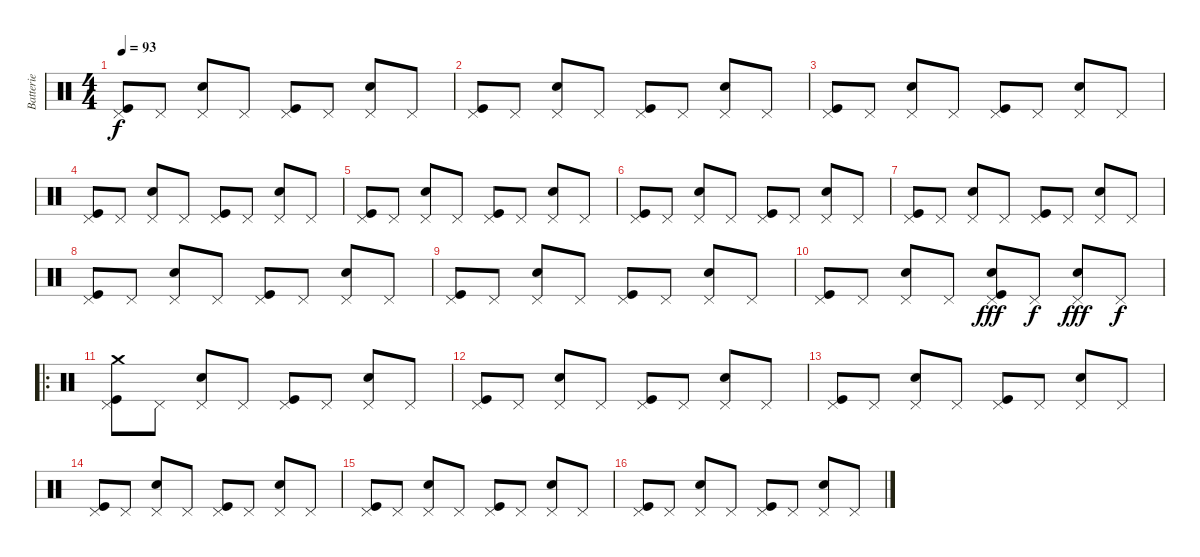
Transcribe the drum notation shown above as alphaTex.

\track ("Batterie" "Batterie") {instrument percussion}
\staff {score}
\articulation defaults
\ts (4 4)
\tempo 93
\clef neutral
\ks c
("Kick (hit)" "Pedal Hi-Hat (hit)").8{dy f} "Pedal Hi-Hat (hit)".8 ("Snare (hit) 2" "Pedal Hi-Hat (hit)").8 "Pedal Hi-Hat (hit)".8 ("Kick (hit)" "Pedal Hi-Hat (hit)").8 "Pedal Hi-Hat (hit)".8 ("Snare (hit) 2" "Pedal Hi-Hat (hit)").8 "Pedal Hi-Hat (hit)".8 |
("Kick (hit)" "Pedal Hi-Hat (hit)").8 "Pedal Hi-Hat (hit)".8 ("Snare (hit) 2" "Pedal Hi-Hat (hit)").8 "Pedal Hi-Hat (hit)".8 ("Kick (hit)" "Pedal Hi-Hat (hit)").8 "Pedal Hi-Hat (hit)".8 ("Snare (hit) 2" "Pedal Hi-Hat (hit)").8 "Pedal Hi-Hat (hit)".8 |
("Kick (hit)" "Pedal Hi-Hat (hit)").8 "Pedal Hi-Hat (hit)".8 ("Snare (hit) 2" "Pedal Hi-Hat (hit)").8 "Pedal Hi-Hat (hit)".8 ("Kick (hit)" "Pedal Hi-Hat (hit)").8 "Pedal Hi-Hat (hit)".8 ("Snare (hit) 2" "Pedal Hi-Hat (hit)").8 "Pedal Hi-Hat (hit)".8 |
("Kick (hit)" "Pedal Hi-Hat (hit)").8 "Pedal Hi-Hat (hit)".8 ("Snare (hit) 2" "Pedal Hi-Hat (hit)").8 "Pedal Hi-Hat (hit)".8 ("Kick (hit)" "Pedal Hi-Hat (hit)").8 "Pedal Hi-Hat (hit)".8 ("Snare (hit) 2" "Pedal Hi-Hat (hit)").8 "Pedal Hi-Hat (hit)".8 |
("Kick (hit)" "Pedal Hi-Hat (hit)").8 "Pedal Hi-Hat (hit)".8 ("Snare (hit) 2" "Pedal Hi-Hat (hit)").8 "Pedal Hi-Hat (hit)".8 ("Kick (hit)" "Pedal Hi-Hat (hit)").8 "Pedal Hi-Hat (hit)".8 ("Snare (hit) 2" "Pedal Hi-Hat (hit)").8 "Pedal Hi-Hat (hit)".8 |
("Kick (hit)" "Pedal Hi-Hat (hit)").8 "Pedal Hi-Hat (hit)".8 ("Snare (hit) 2" "Pedal Hi-Hat (hit)").8 "Pedal Hi-Hat (hit)".8 ("Kick (hit)" "Pedal Hi-Hat (hit)").8 "Pedal Hi-Hat (hit)".8 ("Snare (hit) 2" "Pedal Hi-Hat (hit)").8 "Pedal Hi-Hat (hit)".8 |
("Kick (hit)" "Pedal Hi-Hat (hit)").8 "Pedal Hi-Hat (hit)".8 ("Snare (hit) 2" "Pedal Hi-Hat (hit)").8 "Pedal Hi-Hat (hit)".8 ("Kick (hit)" "Pedal Hi-Hat (hit)").8 "Pedal Hi-Hat (hit)".8 ("Snare (hit) 2" "Pedal Hi-Hat (hit)").8 "Pedal Hi-Hat (hit)".8 |
("Kick (hit)" "Pedal Hi-Hat (hit)").8 "Pedal Hi-Hat (hit)".8 ("Snare (hit) 2" "Pedal Hi-Hat (hit)").8 "Pedal Hi-Hat (hit)".8 ("Kick (hit)" "Pedal Hi-Hat (hit)").8 "Pedal Hi-Hat (hit)".8 ("Snare (hit) 2" "Pedal Hi-Hat (hit)").8 "Pedal Hi-Hat (hit)".8 |
("Kick (hit)" "Pedal Hi-Hat (hit)").8 "Pedal Hi-Hat (hit)".8 ("Snare (hit) 2" "Pedal Hi-Hat (hit)").8 "Pedal Hi-Hat (hit)".8 ("Kick (hit)" "Pedal Hi-Hat (hit)").8 "Pedal Hi-Hat (hit)".8 ("Snare (hit) 2" "Pedal Hi-Hat (hit)").8 "Pedal Hi-Hat (hit)".8 |
("Kick (hit)" "Pedal Hi-Hat (hit)").8 "Pedal Hi-Hat (hit)".8 ("Snare (hit) 2" "Pedal Hi-Hat (hit)").8 "Pedal Hi-Hat (hit)".8 ("Snare (hit) 2" "Kick (hit)" "Pedal Hi-Hat (hit)").8{dy fff} "Pedal Hi-Hat (hit)".8{dy f} ("Snare (hit) 2" "Pedal Hi-Hat (hit)").8{dy fff} "Pedal Hi-Hat (hit)".8{dy f} |
\ro
("Crash medium (hit)" "Kick (hit)" "Pedal Hi-Hat (hit)").8 "Pedal Hi-Hat (hit)".8 ("Snare (hit) 2" "Pedal Hi-Hat (hit)").8 "Pedal Hi-Hat (hit)".8 ("Kick (hit)" "Pedal Hi-Hat (hit)").8 "Pedal Hi-Hat (hit)".8 ("Snare (hit) 2" "Pedal Hi-Hat (hit)").8 "Pedal Hi-Hat (hit)".8 |
("Kick (hit)" "Pedal Hi-Hat (hit)").8 "Pedal Hi-Hat (hit)".8 ("Snare (hit) 2" "Pedal Hi-Hat (hit)").8 "Pedal Hi-Hat (hit)".8 ("Kick (hit)" "Pedal Hi-Hat (hit)").8 "Pedal Hi-Hat (hit)".8 ("Snare (hit) 2" "Pedal Hi-Hat (hit)").8 "Pedal Hi-Hat (hit)".8 |
("Kick (hit)" "Pedal Hi-Hat (hit)").8 "Pedal Hi-Hat (hit)".8 ("Snare (hit) 2" "Pedal Hi-Hat (hit)").8 "Pedal Hi-Hat (hit)".8 ("Kick (hit)" "Pedal Hi-Hat (hit)").8 "Pedal Hi-Hat (hit)".8 ("Snare (hit) 2" "Pedal Hi-Hat (hit)").8 "Pedal Hi-Hat (hit)".8 |
("Kick (hit)" "Pedal Hi-Hat (hit)").8 "Pedal Hi-Hat (hit)".8 ("Snare (hit) 2" "Pedal Hi-Hat (hit)").8 "Pedal Hi-Hat (hit)".8 ("Kick (hit)" "Pedal Hi-Hat (hit)").8 "Pedal Hi-Hat (hit)".8 ("Snare (hit) 2" "Pedal Hi-Hat (hit)").8 "Pedal Hi-Hat (hit)".8 |
("Kick (hit)" "Pedal Hi-Hat (hit)").8 "Pedal Hi-Hat (hit)".8 ("Snare (hit) 2" "Pedal Hi-Hat (hit)").8 "Pedal Hi-Hat (hit)".8 ("Kick (hit)" "Pedal Hi-Hat (hit)").8 "Pedal Hi-Hat (hit)".8 ("Snare (hit) 2" "Pedal Hi-Hat (hit)").8 "Pedal Hi-Hat (hit)".8 |
("Kick (hit)" "Pedal Hi-Hat (hit)").8 "Pedal Hi-Hat (hit)".8 ("Snare (hit) 2" "Pedal Hi-Hat (hit)").8 "Pedal Hi-Hat (hit)".8 ("Kick (hit)" "Pedal Hi-Hat (hit)").8 "Pedal Hi-Hat (hit)".8 ("Snare (hit) 2" "Pedal Hi-Hat (hit)").8 "Pedal Hi-Hat (hit)".8
